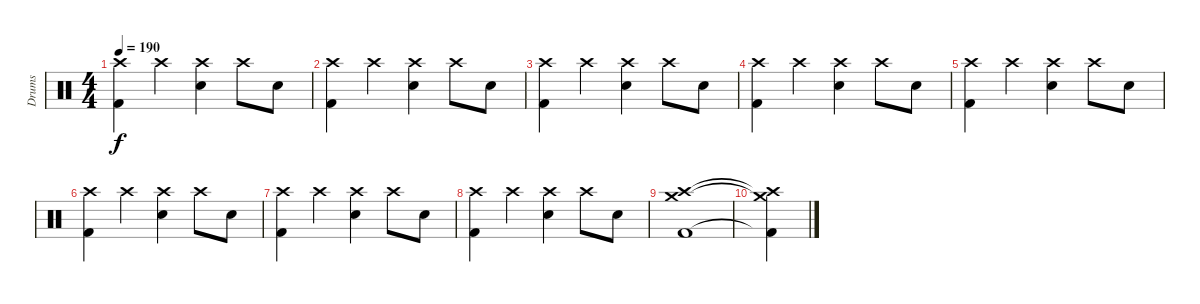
\track ("Drums" "Drums") {instrument percussion}
\staff {score}
\articulation defaults
\ts (4 4)
\tempo 190
\clef neutral
\ks c
("Crash high (hit)" "Kick (hit) 2").4{dy f} "Crash high (hit)".4 ("Crash high (hit)" "Electric Snare (hit)").4 "Crash high (hit)".8 "Electric Snare (hit)".8 |
("Crash high (hit)" "Kick (hit) 2").4 "Crash high (hit)".4 ("Crash high (hit)" "Electric Snare (hit)").4 "Crash high (hit)".8 "Electric Snare (hit)".8 |
("Crash high (hit)" "Kick (hit) 2").4 "Crash high (hit)".4 ("Crash high (hit)" "Electric Snare (hit)").4 "Crash high (hit)".8 "Electric Snare (hit)".8 |
("Crash high (hit)" "Kick (hit) 2").4 "Crash high (hit)".4 ("Crash high (hit)" "Electric Snare (hit)").4 "Crash high (hit)".8 "Electric Snare (hit)".8 |
("Crash high (hit)" "Kick (hit) 2").4 "Crash high (hit)".4 ("Crash high (hit)" "Electric Snare (hit)").4 "Crash high (hit)".8 "Electric Snare (hit)".8 |
("Crash high (hit)" "Kick (hit) 2").4 "Crash high (hit)".4 ("Crash high (hit)" "Electric Snare (hit)").4 "Crash high (hit)".8 "Electric Snare (hit)".8 |
("Crash high (hit)" "Kick (hit) 2").4 "Crash high (hit)".4 ("Crash high (hit)" "Electric Snare (hit)").4 "Crash high (hit)".8 "Electric Snare (hit)".8 |
("Crash high (hit)" "Kick (hit) 2").4 "Crash high (hit)".4 ("Crash high (hit)" "Electric Snare (hit)").4 "Crash high (hit)".8 "Electric Snare (hit)".8 |
("Crash high (hit)" "Crash medium (hit)" "Kick (hit) 2").1 |
("Crash high (hit)"{t} "Crash medium (hit)"{t} "Kick (hit) 2"{t}).4
